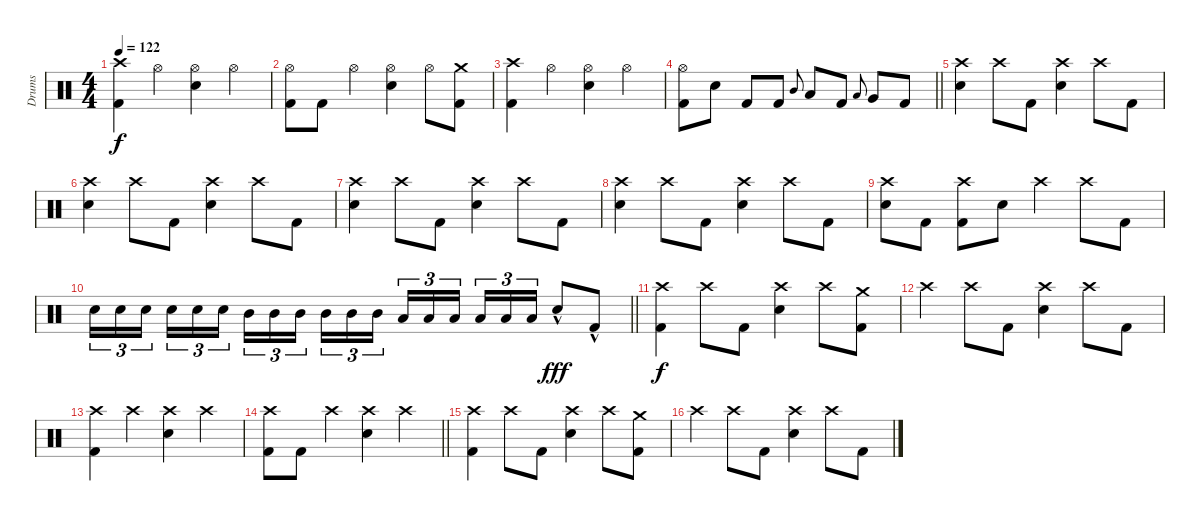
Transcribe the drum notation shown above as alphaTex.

\track ("Drums" "Drums") {instrument percussion}
\staff {score}
\articulation defaults
\ts (4 4)
\tempo 122
\clef neutral
\ks c
("Crash high (hit)" "Kick (hit) 2").4{dy f} "Hi-Hat (open)".4 ("Hi-Hat (open)" "Electric Snare (hit)").4 "Hi-Hat (open)".4 |
("Hi-Hat (open)" "Kick (hit) 2").8 "Kick (hit) 2".8 "Hi-Hat (open)".4 ("Hi-Hat (open)" "Electric Snare (hit)").4 "Hi-Hat (open)".8 ("Crash medium (hit)" "Kick (hit) 2").8 |
("Crash high (hit)" "Kick (hit) 2").4 "Hi-Hat (open)".4 ("Hi-Hat (open)" "Electric Snare (hit)").4 "Hi-Hat (open)".4 |
\barLineRight lightlight
("Hi-Hat (open)" "Kick (hit) 2").8 "Electric Snare (hit)".8 "Kick (hit) 2".8 "Kick (hit) 2".8 "Mid Tom (hit)".8{gr onbeat} "Low Tom (hit)".8 "Kick (hit) 2".8 "Low Tom (hit)".8{gr onbeat} "Very Low Tom (hit)".8 "Kick (hit) 2".8 |
("Crash high (hit)" "Electric Snare (hit)").4 "Crash high (hit)".8 "Kick (hit) 2".8 ("Crash high (hit)" "Electric Snare (hit)").4 "Crash high (hit)".8 "Kick (hit) 2".8 |
("Crash high (hit)" "Electric Snare (hit)").4 "Crash high (hit)".8 "Kick (hit) 2".8 ("Crash high (hit)" "Electric Snare (hit)").4 "Crash high (hit)".8 "Kick (hit) 2".8 |
("Crash high (hit)" "Electric Snare (hit)").4 "Crash high (hit)".8 "Kick (hit) 2".8 ("Crash high (hit)" "Electric Snare (hit)").4 "Crash high (hit)".8 "Kick (hit) 2".8 |
("Crash high (hit)" "Electric Snare (hit)").4 "Crash high (hit)".8 "Kick (hit) 2".8 ("Crash high (hit)" "Electric Snare (hit)").4 "Crash high (hit)".8 "Kick (hit) 2".8 |
("Crash high (hit)" "Electric Snare (hit)").8 "Kick (hit) 2".8 ("Crash high (hit)" "Kick (hit) 2").8 "Electric Snare (hit)".8 "Crash high (hit)".4 "Crash high (hit)".8 "Kick (hit) 2".8 |
\barLineRight lightlight "Electric Snare (hit)".16{tu (3 2)} "Electric Snare (hit)".16{tu (3 2)} "Electric Snare (hit)".16{tu (3 2) beam splitsecondary} "Electric Snare (hit)".16{tu (3 2)} "Electric Snare (hit)".16{tu (3 2)} "Electric Snare (hit)".16{tu (3 2)} "Mid Tom (hit)".16{tu (3 2)} "Mid Tom (hit)".16{tu (3 2)} "Mid Tom (hit)".16{tu (3 2) beam splitsecondary} "Mid Tom (hit)".16{tu (3 2)} "Mid Tom (hit)".16{tu (3 2)} "Mid Tom (hit)".16{tu (3 2)} "Low Tom (hit)".16{tu (3 2)} "Low Tom (hit)".16{tu (3 2)} "Low Tom (hit)".16{tu (3 2) beam splitsecondary} "Low Tom (hit)".16{tu (3 2)} "Low Tom (hit)".16{tu (3 2)} "Low Tom (hit)".16{tu (3 2)} "Electric Snare (hit)"{hac}.8{dy fff} "Kick (hit) 2"{hac}.8
|
("Crash high (hit)" "Kick (hit) 2").4{dy f} "Crash high (hit)".8 "Kick (hit) 2".8 ("Crash high (hit)" "Electric Snare (hit)").4 "Crash high (hit)".8 ("Crash medium (hit)" "Kick (hit) 2").8 |
"Crash high (hit)".4 "Crash high (hit)".8 "Kick (hit) 2".8 ("Crash high (hit)" "Electric Snare (hit)").4 "Crash high (hit)".8 "Kick (hit) 2".8 |
("Crash high (hit)" "Kick (hit) 2").4 "Crash high (hit)".4 ("Crash high (hit)" "Electric Snare (hit)").4 "Crash high (hit)".4 |
\barLineRight lightlight
("Crash high (hit)" "Kick (hit) 2").8 "Kick (hit) 2".8 "Crash high (hit)".4 ("Crash high (hit)" "Electric Snare (hit)").4 "Crash high (hit)".4 |
("Crash high (hit)" "Kick (hit) 2").4 "Crash high (hit)".8 "Kick (hit) 2".8 ("Crash high (hit)" "Electric Snare (hit)").4 "Crash high (hit)".8 ("Crash medium (hit)" "Kick (hit) 2").8 |
"Crash high (hit)".4 "Crash high (hit)".8 "Kick (hit) 2".8 ("Crash high (hit)" "Electric Snare (hit)").4 "Crash high (hit)".8 "Kick (hit) 2".8
